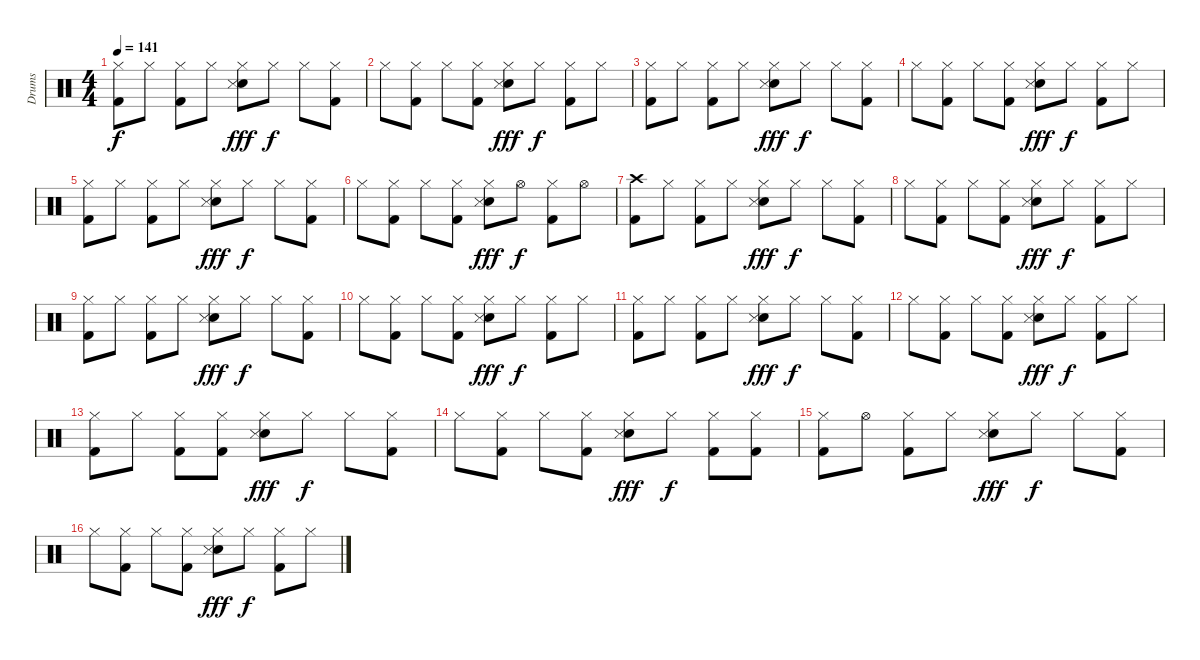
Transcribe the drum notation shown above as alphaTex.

\track ("Drums" "Drums") {instrument percussion}
\staff {score}
\articulation defaults
\ts (4 4)
\tempo 141
\clef neutral
\ks c
("Hi-Hat (closed)" "Kick (hit) 2").8{dy f} "Hi-Hat (closed)".8 ("Hi-Hat (closed)" "Kick (hit) 2").8 "Hi-Hat (closed)".8 ("Hi-Hat (closed)" "Electric Snare (hit)" "Metronome (hit)").8{dy fff} "Hi-Hat (closed)".8{dy f} "Hi-Hat (closed)".8 ("Hi-Hat (closed)" "Kick (hit) 2").8 |
"Hi-Hat (closed)".8 ("Hi-Hat (closed)" "Kick (hit) 2").8 "Hi-Hat (closed)".8 ("Hi-Hat (closed)" "Kick (hit) 2").8 ("Hi-Hat (closed)" "Electric Snare (hit)" "Metronome (hit)").8{dy fff} "Hi-Hat (closed)".8{dy f} ("Hi-Hat (closed)" "Kick (hit) 2").8 "Hi-Hat (closed)".8 |
("Hi-Hat (closed)" "Kick (hit) 2").8 "Hi-Hat (closed)".8 ("Hi-Hat (closed)" "Kick (hit) 2").8 "Hi-Hat (closed)".8 ("Hi-Hat (closed)" "Electric Snare (hit)" "Metronome (hit)").8{dy fff} "Hi-Hat (closed)".8{dy f} "Hi-Hat (closed)".8 ("Hi-Hat (closed)" "Kick (hit) 2").8 |
"Hi-Hat (closed)".8 ("Hi-Hat (closed)" "Kick (hit) 2").8 "Hi-Hat (closed)".8 ("Hi-Hat (closed)" "Kick (hit) 2").8 ("Hi-Hat (closed)" "Electric Snare (hit)" "Metronome (hit)").8{dy fff} "Hi-Hat (closed)".8{dy f} ("Hi-Hat (closed)" "Kick (hit) 2").8 "Hi-Hat (closed)".8 |
("Hi-Hat (closed)" "Kick (hit) 2").8 "Hi-Hat (closed)".8 ("Hi-Hat (closed)" "Kick (hit) 2").8 "Hi-Hat (closed)".8 ("Hi-Hat (closed)" "Electric Snare (hit)" "Metronome (hit)").8{dy fff} "Hi-Hat (closed)".8{dy f} "Hi-Hat (closed)".8 ("Hi-Hat (closed)" "Kick (hit) 2").8 |
"Hi-Hat (closed)".8 ("Hi-Hat (closed)" "Kick (hit) 2").8 "Hi-Hat (closed)".8 ("Hi-Hat (closed)" "Kick (hit) 2").8 ("Hi-Hat (closed)" "Electric Snare (hit)" "Metronome (hit)").8{dy fff} "Hi-Hat (open)".8{dy f} ("Hi-Hat (closed)" "Kick (hit) 2").8 "Hi-Hat (open)".8 |
("Crash high (hit)" "Kick (hit) 2").8 "Hi-Hat (closed)".8 ("Hi-Hat (closed)" "Kick (hit) 2").8 "Hi-Hat (closed)".8 ("Hi-Hat (closed)" "Electric Snare (hit)" "Metronome (hit)").8{dy fff} "Hi-Hat (closed)".8{dy f} "Hi-Hat (closed)".8 ("Hi-Hat (closed)" "Kick (hit) 2").8 |
"Hi-Hat (closed)".8 ("Hi-Hat (closed)" "Kick (hit) 2").8 "Hi-Hat (closed)".8 ("Hi-Hat (closed)" "Kick (hit) 2").8 ("Hi-Hat (closed)" "Electric Snare (hit)" "Metronome (hit)").8{dy fff} "Hi-Hat (closed)".8{dy f} ("Hi-Hat (closed)" "Kick (hit) 2").8 "Hi-Hat (closed)".8 |
("Hi-Hat (closed)" "Kick (hit) 2").8 "Hi-Hat (closed)".8 ("Hi-Hat (closed)" "Kick (hit) 2").8 "Hi-Hat (closed)".8 ("Hi-Hat (closed)" "Electric Snare (hit)" "Metronome (hit)").8{dy fff} "Hi-Hat (closed)".8{dy f} "Hi-Hat (closed)".8 ("Hi-Hat (closed)" "Kick (hit) 2").8 |
"Hi-Hat (closed)".8 ("Hi-Hat (closed)" "Kick (hit) 2").8 "Hi-Hat (closed)".8 ("Hi-Hat (closed)" "Kick (hit) 2").8 ("Hi-Hat (closed)" "Electric Snare (hit)" "Metronome (hit)").8{dy fff} "Hi-Hat (closed)".8{dy f} ("Hi-Hat (closed)" "Kick (hit) 2").8 "Hi-Hat (closed)".8 |
("Hi-Hat (closed)" "Kick (hit) 2").8 "Hi-Hat (closed)".8 ("Hi-Hat (closed)" "Kick (hit) 2").8 "Hi-Hat (closed)".8 ("Hi-Hat (closed)" "Electric Snare (hit)" "Metronome (hit)").8{dy fff} "Hi-Hat (closed)".8{dy f} "Hi-Hat (closed)".8 ("Hi-Hat (closed)" "Kick (hit) 2").8 |
"Hi-Hat (closed)".8 ("Hi-Hat (closed)" "Kick (hit) 2").8 "Hi-Hat (closed)".8 ("Hi-Hat (closed)" "Kick (hit) 2").8 ("Hi-Hat (closed)" "Electric Snare (hit)" "Metronome (hit)").8{dy fff} "Hi-Hat (closed)".8{dy f} ("Hi-Hat (closed)" "Kick (hit) 2").8 "Hi-Hat (closed)".8 |
("Hi-Hat (closed)" "Kick (hit) 2").8 "Hi-Hat (closed)".8 ("Hi-Hat (closed)" "Kick (hit) 2").8 ("Hi-Hat (closed)" "Kick (hit) 2").8 ("Hi-Hat (closed)" "Electric Snare (hit)" "Metronome (hit)").8{dy fff} "Hi-Hat (closed)".8{dy f} "Hi-Hat (closed)".8 ("Hi-Hat (closed)" "Kick (hit) 2").8 |
"Hi-Hat (closed)".8 ("Hi-Hat (closed)" "Kick (hit) 2").8 "Hi-Hat (closed)".8 ("Hi-Hat (closed)" "Kick (hit) 2").8 ("Hi-Hat (closed)" "Electric Snare (hit)" "Metronome (hit)").8{dy fff} "Hi-Hat (closed)".8{dy f} ("Hi-Hat (closed)" "Kick (hit) 2").8 ("Hi-Hat (closed)" "Kick (hit) 2").8 |
("Hi-Hat (closed)" "Kick (hit) 2").8 "Hi-Hat (open)".8 ("Hi-Hat (closed)" "Kick (hit) 2").8 "Hi-Hat (closed)".8 ("Hi-Hat (closed)" "Electric Snare (hit)" "Metronome (hit)").8{dy fff} "Hi-Hat (closed)".8{dy f} "Hi-Hat (closed)".8 ("Hi-Hat (closed)" "Kick (hit) 2").8 |
"Hi-Hat (closed)".8 ("Hi-Hat (closed)" "Kick (hit) 2").8 "Hi-Hat (closed)".8 ("Hi-Hat (closed)" "Kick (hit) 2").8 ("Hi-Hat (closed)" "Electric Snare (hit)" "Metronome (hit)").8{dy fff} "Hi-Hat (closed)".8{dy f} ("Hi-Hat (closed)" "Kick (hit) 2").8 "Hi-Hat (closed)".8
